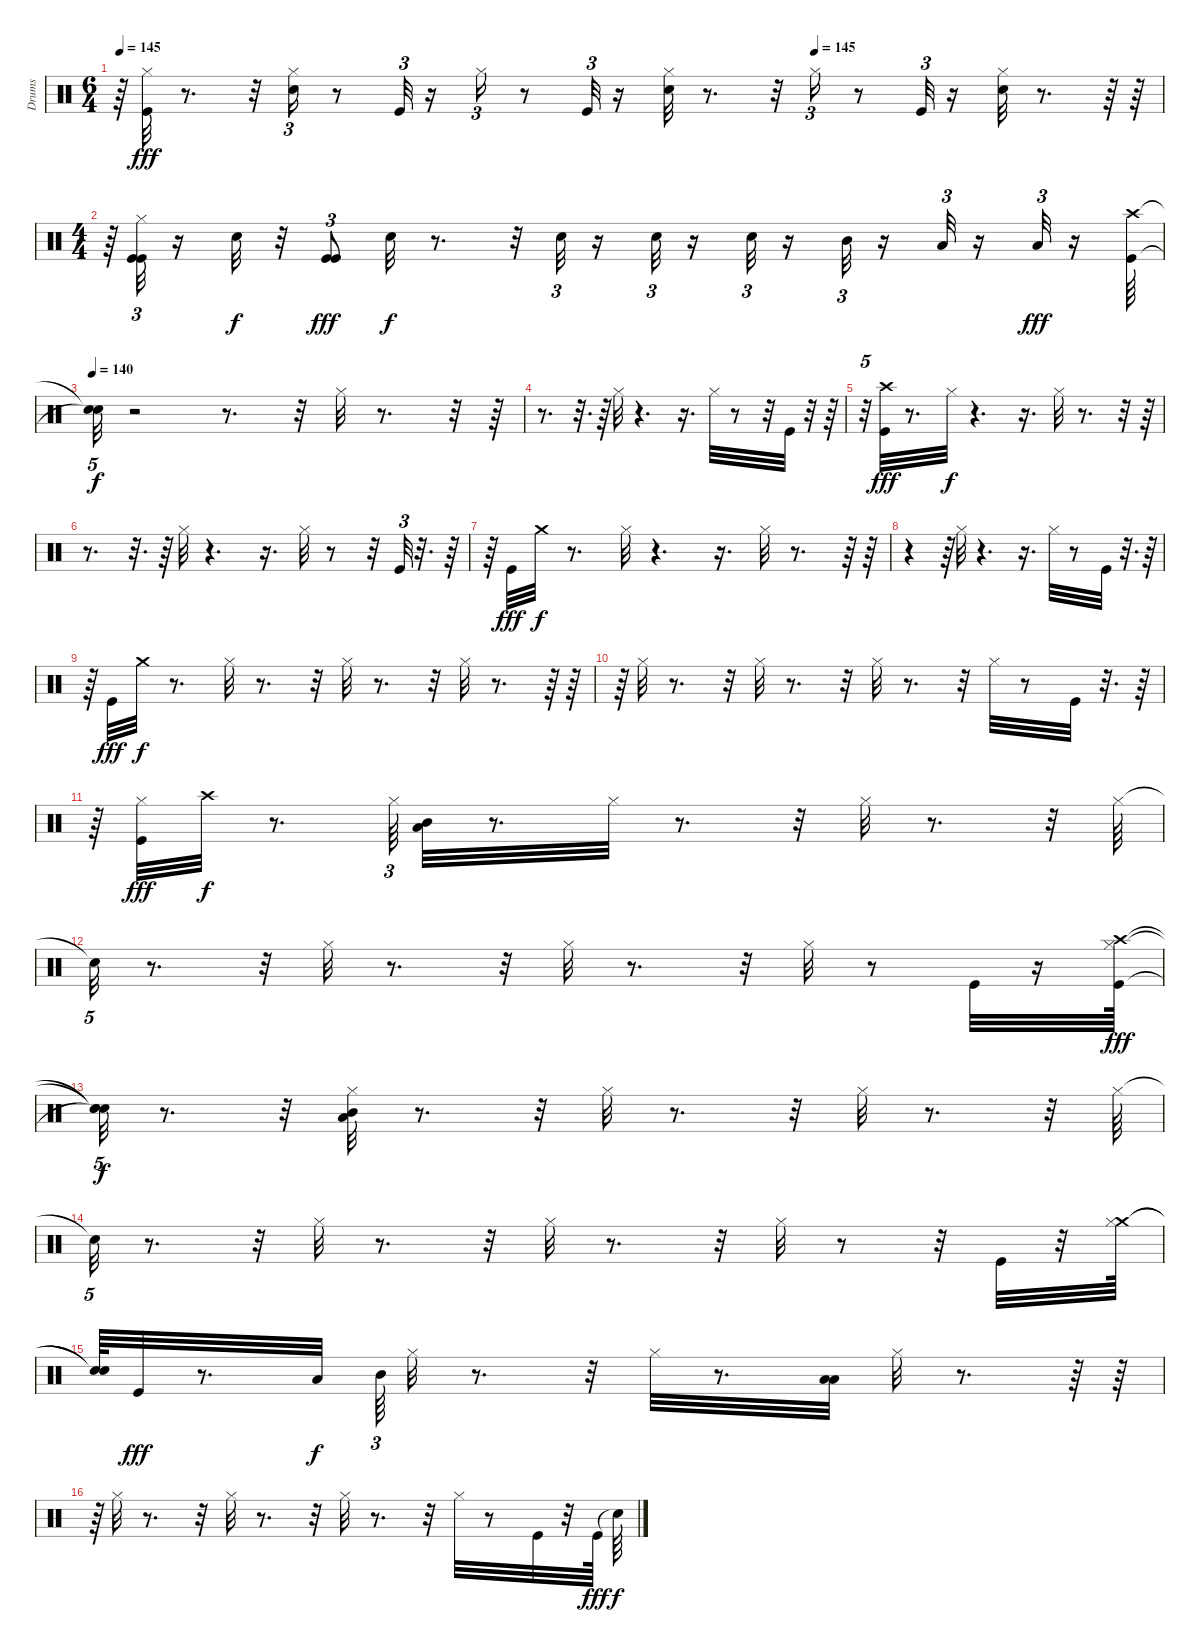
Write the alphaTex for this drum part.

\track ("Drums" "Drums") {instrument percussion}
\staff {score}
\articulation defaults
\ts (6 4)
\tempo 145
\tempo (145 0.6666666666666666)
\clef neutral
\ks c
r.64{dy fff} ("Kick (hit)" "Hi-Hat (closed)").32 r.8{d} r.32 ("Electric Snare (hit)" "Hi-Hat (closed)").16{tu (3 2)} r.8 "Kick (hit)".32{tu (3 2)} r.16 "Hi-Hat (closed)".16{tu (3 2)} r.8 "Kick (hit)".32{tu (3 2)} r.16 ("Electric Snare (hit)" "Hi-Hat (closed)").32 r.8{d} r.32 "Hi-Hat (closed)".16{tu (3 2)} r.8 "Kick (hit)".32{tu (3 2)} r.16 ("Electric Snare (hit)" "Hi-Hat (closed)").32 r.8{d} r.64 r.64 |
\ts (4 4)
r.64 ("Kick (hit)" "Kick (hit)" "Hi-Hat (closed)").32{tu (3 2)} r.16 "Electric Snare (hit)".32{dy f} r.32 ("Kick (hit)" "Kick (hit)").8{tu (3 2) dy fff} "Electric Snare (hit)".32{dy f} r.8{d} r.32 "Electric Snare (hit)".32{tu (3 2)} r.16 "Electric Snare (hit)".32{tu (3 2)} r.16 "Electric Snare (hit)".32{tu (3 2)} r.16 "Mid Tom (hit)".32{tu (3 2)} r.16 "Low Tom (hit)".32{tu (3 2)} r.16 "Low Floor Tom (hit)".32{tu (3 2) dy fff} r.16 ("Kick (hit)" "Crash high (hit)").64 |
\tempo 140
("Snare (hit)"{t} "Snare (hit)"{t}).32{tu (5 4) dy f} r.2 r.8{d} r.32 "Hi-Hat (closed)".32 r.8{d} r.32 r.64 |
r.8{d} r.32{d} r.64 "Hi-Hat (closed)".32 r.4{d} r.16{d} "Hi-Hat (closed)".32 r.8 r.32 "Kick (hit)".32 r.32 r.64 |
r.32{tu (5 4)} ("Kick (hit)" "Crash high (hit)").32{dy fff} r.8{d} "Hi-Hat (closed)".32{dy f} r.4{d} r.16{d} "Hi-Hat (closed)".32 r.8{d} r.32 r.64 |
r.8{d} r.32{d} r.64 "Hi-Hat (closed)".32 r.4{d} r.16{d} "Hi-Hat (closed)".32 r.8 r.32 "Kick (hit)".32{tu (3 2)} r.32{d} r.64 |
r.64 "Kick (hit)".32{dy fff} "Crash medium (hit)".32{dy f} r.8{d} "Hi-Hat (closed)".32 r.4{d} r.16{d} "Hi-Hat (closed)".32 r.8{d} r.64 r.64 |
r.4 r.64 "Hi-Hat (closed)".32 r.4{d} r.16{d} "Hi-Hat (closed)".32 r.8 "Kick (hit)".32 r.32{d} r.64 |
r.64 "Kick (hit)".32{dy fff} "Crash medium (hit)".32{dy f} r.8{d} "Hi-Hat (closed)".32 r.8{d} r.32 "Hi-Hat (closed)".32 r.8{d} r.32 "Hi-Hat (closed)".32 r.8{d} r.64 r.64 |
r.64 "Hi-Hat (closed)".32 r.8{d} r.32 "Hi-Hat (closed)".32 r.8{d} r.32 "Hi-Hat (closed)".32 r.8{d} r.32 "Hi-Hat (closed)".32 r.8 "Kick (hit)".32 r.32{d} r.64 |
r.64 ("Hi-Hat (closed)" "Kick (hit)").32{dy fff} "Crash high (hit)".32{dy f} r.8{d} "Hi-Hat (closed)".64{tu (3 2)} ("Low Tom (hit)" "Mid Tom (hit)").32 r.8{d} "Hi-Hat (closed)".32 r.8{d} r.32 "Hi-Hat (closed)".32 r.8{d} r.32 "Hi-Hat (closed)".64 |
"Snare (hit)"{t}.32{tu (5 4)} r.8{d} r.32 "Hi-Hat (closed)".32 r.8{d} r.32 "Hi-Hat (closed)".32 r.8{d} r.32 "Hi-Hat (closed)".32 r.8 "Kick (hit)".32 r.16 ("Hi-Hat (closed)" "Kick (hit)" "Crash high (hit)").64{dy fff} |
("Snare (hit)"{t} "Snare (hit)"{t} "Snare (hit)"{t}).32{tu (5 4) dy f} r.8{d} r.32 ("Low Tom (hit)" "Mid Tom (hit)" "Hi-Hat (closed)").32 r.8{d} r.32 "Hi-Hat (closed)".32 r.8{d} r.32 "Hi-Hat (closed)".32 r.8{d} r.32 "Hi-Hat (closed)".64 |
"Snare (hit)"{t}.32{tu (5 4)} r.8{d} r.32 "Hi-Hat (closed)".32 r.8{d} r.32 "Hi-Hat (closed)".32 r.8{d} r.32 "Hi-Hat (closed)".32 r.8 r.32 "Kick (hit)".32 r.32 ("Crash medium (hit)" "Hi-Hat (closed)").64 |
("Snare (hit)"{t} "Snare (hit)"{t}).64 "Kick (hit)".32{dy fff} r.8{d} "Low Tom (hit)".32{dy f} "Mid Tom (hit)".64{tu (3 2)} "Hi-Hat (closed)".32 r.8{d} r.32 "Hi-Hat (closed)".32 r.8{d} ("Low Floor Tom (hit)" "Low Tom (hit)").32 "Hi-Hat (closed)".32 r.8{d} r.64 r.64 |
r.64 "Hi-Hat (closed)".32 r.8{d} r.32 "Hi-Hat (closed)".32 r.8{d} r.32 "Hi-Hat (closed)".32 r.8{d} r.32 "Hi-Hat (closed)".32 r.8 "Kick (hit)".32 r.32 "Kick (hit)".64{dy fff} "Snare (hit)"{t}.64{dy f}
